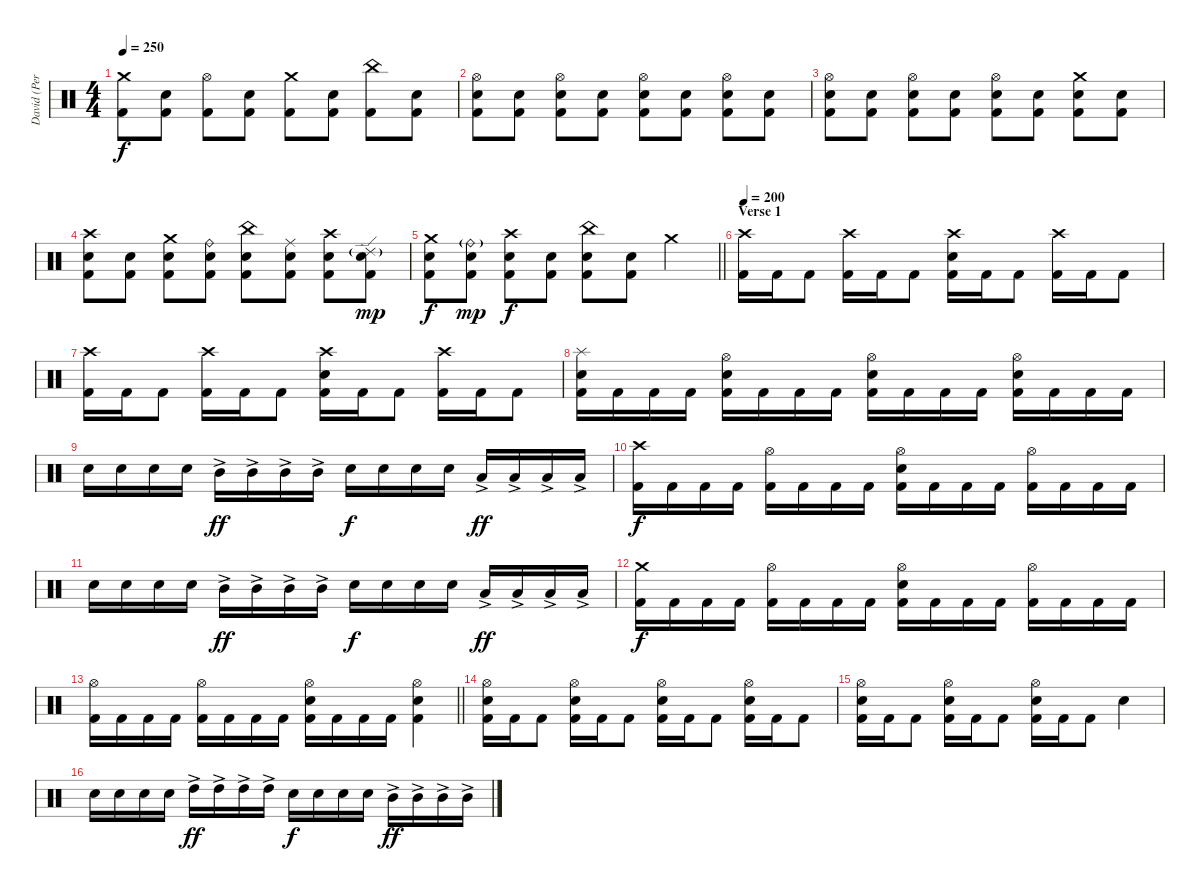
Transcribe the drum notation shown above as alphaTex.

\track ("David (Percussion)" "David (Per") {instrument percussion}
\staff {score}
\articulation defaults
\ts (4 4)
\tempo 250
\clef neutral
\ks c
("Crash medium (hit)" "Kick (hit) 2").8{dy f} ("Electric Snare (hit)" "Kick (hit) 2").8 ("Hi-Hat (open)" "Kick (hit) 2").8 ("Electric Snare (hit)" "Kick (hit) 2").8 ("Crash medium (hit)" "Kick (hit) 2").8 ("Electric Snare (hit)" "Kick (hit) 2").8 ("China (hit)" "Kick (hit) 2").8 ("Electric Snare (hit)" "Kick (hit) 2").8 |
("Hi-Hat (open)" "Electric Snare (hit)" "Kick (hit) 2").8 ("Electric Snare (hit)" "Kick (hit) 2").8 ("Hi-Hat (open)" "Electric Snare (hit)" "Kick (hit) 2").8 ("Electric Snare (hit)" "Kick (hit) 2").8 ("Hi-Hat (open)" "Electric Snare (hit)" "Kick (hit) 2").8 ("Electric Snare (hit)" "Kick (hit) 2").8 ("Hi-Hat (open)" "Electric Snare (hit)" "Kick (hit) 2").8 ("Electric Snare (hit)" "Kick (hit) 2").8 |
("Hi-Hat (open)" "Electric Snare (hit)" "Kick (hit) 2").8 ("Electric Snare (hit)" "Kick (hit) 2").8 ("Hi-Hat (open)" "Electric Snare (hit)" "Kick (hit) 2").8 ("Electric Snare (hit)" "Kick (hit) 2").8 ("Hi-Hat (open)" "Electric Snare (hit)" "Kick (hit) 2").8 ("Electric Snare (hit)" "Kick (hit) 2").8 ("Crash medium (hit)" "Electric Snare (hit)" "Kick (hit) 2").8 ("Electric Snare (hit)" "Kick (hit) 2").8 |
("Crash high (hit)" "Electric Snare (hit)" "Kick (hit) 2").8 ("Electric Snare (hit)" "Kick (hit) 2").8 ("Crash medium (hit)" "Electric Snare (hit)" "Kick (hit) 2").8 ("Ride (bell)" "Electric Snare (hit)" "Kick (hit) 2").8 ("China (hit)" "Electric Snare (hit)" "Kick (hit) 2").8 ("Ride (middle)" "Electric Snare (hit)" "Kick (hit) 2").8 ("Crash high (hit)" "Electric Snare (hit)" "Kick (hit) 2").8 ("Ride (edge) 2"{g} "Electric Snare (hit)" "Kick (hit) 2").8{dy mp} |
\barLineRight lightlight
("Crash medium (hit)" "Electric Snare (hit)" "Kick (hit) 2").8{dy f} ("Ride (bell)"{g} "Electric Snare (hit)" "Kick (hit) 2").8{dy mp} ("Crash high (hit)" "Electric Snare (hit)" "Kick (hit) 2").8{dy f} ("Electric Snare (hit)" "Kick (hit) 2").8 ("China (hit)" "Electric Snare (hit)" "Kick (hit) 2").8 ("Electric Snare (hit)" "Kick (hit) 2").8 "Crash medium (hit)".4 |
\section ("" "Verse 1")
\tempo 200
("Crash high (hit)" "Kick (hit) 2").16 "Kick (hit) 2".16 "Kick (hit) 2".8 ("Crash high (hit)" "Kick (hit) 2").16 "Kick (hit) 2".16 "Kick (hit) 2".8 ("Crash high (hit)" "Electric Snare (hit)" "Kick (hit) 2").16 "Kick (hit) 2".16 "Kick (hit) 2".8 ("Crash high (hit)" "Kick (hit) 2").16 "Kick (hit) 2".16 "Kick (hit) 2".8 |
("Crash high (hit)" "Kick (hit) 2").16 "Kick (hit) 2".16 "Kick (hit) 2".8 ("Crash high (hit)" "Kick (hit) 2").16 "Kick (hit) 2".16 "Kick (hit) 2".8 ("Crash high (hit)" "Electric Snare (hit)" "Kick (hit) 2").16 "Kick (hit) 2".16 "Kick (hit) 2".8 ("Crash high (hit)" "Kick (hit) 2").16 "Kick (hit) 2".16 "Kick (hit) 2".8 |
("Splash (hit)" "Electric Snare (hit)" "Kick (hit) 2").16 "Kick (hit) 2".16 "Kick (hit) 2".16 "Kick (hit) 2".16 ("Hi-Hat (open)" "Electric Snare (hit)" "Kick (hit) 2").16 "Kick (hit) 2".16 "Kick (hit) 2".16 "Kick (hit) 2".16 ("Hi-Hat (open)" "Electric Snare (hit)" "Kick (hit) 2").16 "Kick (hit) 2".16 "Kick (hit) 2".16 "Kick (hit) 2".16 ("Hi-Hat (open)" "Electric Snare (hit)" "Kick (hit) 2").16 "Kick (hit) 2".16 "Kick (hit) 2".16 "Kick (hit) 2".16 |
"Electric Snare (hit)".16 "Electric Snare (hit)".16 "Electric Snare (hit)".16 "Electric Snare (hit)".16 "Mid Tom (hit)"{ac}.16{dy ff} "Mid Tom (hit)"{ac}.16 "Mid Tom (hit)"{ac}.16 "Mid Tom (hit)"{ac}.16 "Electric Snare (hit)".16{dy f} "Electric Snare (hit)".16 "Electric Snare (hit)".16 "Electric Snare (hit)".16 "Low Tom (hit)"{ac}.16{dy ff} "Low Tom (hit)"{ac}.16 "Low Tom (hit)"{ac}.16 "Low Tom (hit)"{ac}.16 |
("Crash high (hit)" "Kick (hit) 2").16{dy f} "Kick (hit) 2".16 "Kick (hit) 2".16 "Kick (hit) 2".16 ("Hi-Hat (open)" "Kick (hit) 2").16 "Kick (hit) 2".16 "Kick (hit) 2".16 "Kick (hit) 2".16 ("Hi-Hat (open)" "Electric Snare (hit)" "Kick (hit) 2").16 "Kick (hit) 2".16 "Kick (hit) 2".16 "Kick (hit) 2".16 ("Hi-Hat (open)" "Kick (hit) 2").16 "Kick (hit) 2".16 "Kick (hit) 2".16 "Kick (hit) 2".16 |
"Electric Snare (hit)".16 "Electric Snare (hit)".16 "Electric Snare (hit)".16 "Electric Snare (hit)".16 "Mid Tom (hit)"{ac}.16{dy ff} "Mid Tom (hit)"{ac}.16 "Mid Tom (hit)"{ac}.16 "Mid Tom (hit)"{ac}.16 "Electric Snare (hit)".16{dy f} "Electric Snare (hit)".16 "Electric Snare (hit)".16 "Electric Snare (hit)".16 "Low Tom (hit)"{ac}.16{dy ff} "Low Tom (hit)"{ac}.16 "Low Tom (hit)"{ac}.16 "Low Tom (hit)"{ac}.16 |
("Crash medium (hit)" "Kick (hit) 2").16{dy f} "Kick (hit) 2".16 "Kick (hit) 2".16 "Kick (hit) 2".16 ("Hi-Hat (open)" "Kick (hit) 2").16 "Kick (hit) 2".16 "Kick (hit) 2".16 "Kick (hit) 2".16 ("Hi-Hat (open)" "Electric Snare (hit)" "Kick (hit) 2").16 "Kick (hit) 2".16 "Kick (hit) 2".16 "Kick (hit) 2".16 ("Hi-Hat (open)" "Kick (hit) 2").16 "Kick (hit) 2".16 "Kick (hit) 2".16 "Kick (hit) 2".16 |
\barLineRight lightlight
("Hi-Hat (open)" "Kick (hit) 2").16 "Kick (hit) 2".16 "Kick (hit) 2".16 "Kick (hit) 2".16 ("Hi-Hat (open)" "Kick (hit) 2").16 "Kick (hit) 2".16 "Kick (hit) 2".16 "Kick (hit) 2".16 ("Hi-Hat (open)" "Electric Snare (hit)" "Kick (hit) 2").16 "Kick (hit) 2".16 "Kick (hit) 2".16 "Kick (hit) 2".16 ("Hi-Hat (open)" "Electric Snare (hit)" "Kick (hit) 2").4 |
("Hi-Hat (open)" "Electric Snare (hit)" "Kick (hit) 2").16 "Kick (hit) 2".16 "Kick (hit) 2".8 ("Hi-Hat (open)" "Electric Snare (hit)" "Kick (hit) 2").16 "Kick (hit) 2".16 "Kick (hit) 2".8 ("Hi-Hat (open)" "Electric Snare (hit)" "Kick (hit) 2").16 "Kick (hit) 2".16 "Kick (hit) 2".8 ("Hi-Hat (open)" "Electric Snare (hit)" "Kick (hit) 2").16 "Kick (hit) 2".16 "Kick (hit) 2".8 |
("Hi-Hat (open)" "Electric Snare (hit)" "Kick (hit) 2").16 "Kick (hit) 2".16 "Kick (hit) 2".8 ("Hi-Hat (open)" "Electric Snare (hit)" "Kick (hit) 2").16 "Kick (hit) 2".16 "Kick (hit) 2".8 ("Hi-Hat (open)" "Electric Snare (hit)" "Kick (hit) 2").16 "Kick (hit) 2".16 "Kick (hit) 2".8 "Electric Snare (hit)".4 |
"Electric Snare (hit)".16 "Electric Snare (hit)".16 "Electric Snare (hit)".16 "Electric Snare (hit)".16 "High Tom (hit)"{ac}.16{dy ff} "High Tom (hit)"{ac}.16 "High Tom (hit)"{ac}.16 "High Tom (hit)"{ac}.16 "Electric Snare (hit)".16{dy f} "Electric Snare (hit)".16 "Electric Snare (hit)".16 "Electric Snare (hit)".16 "Mid Tom (hit)"{ac}.16{dy ff} "Mid Tom (hit)"{ac}.16 "Mid Tom (hit)"{ac}.16 "Mid Tom (hit)"{ac}.16
